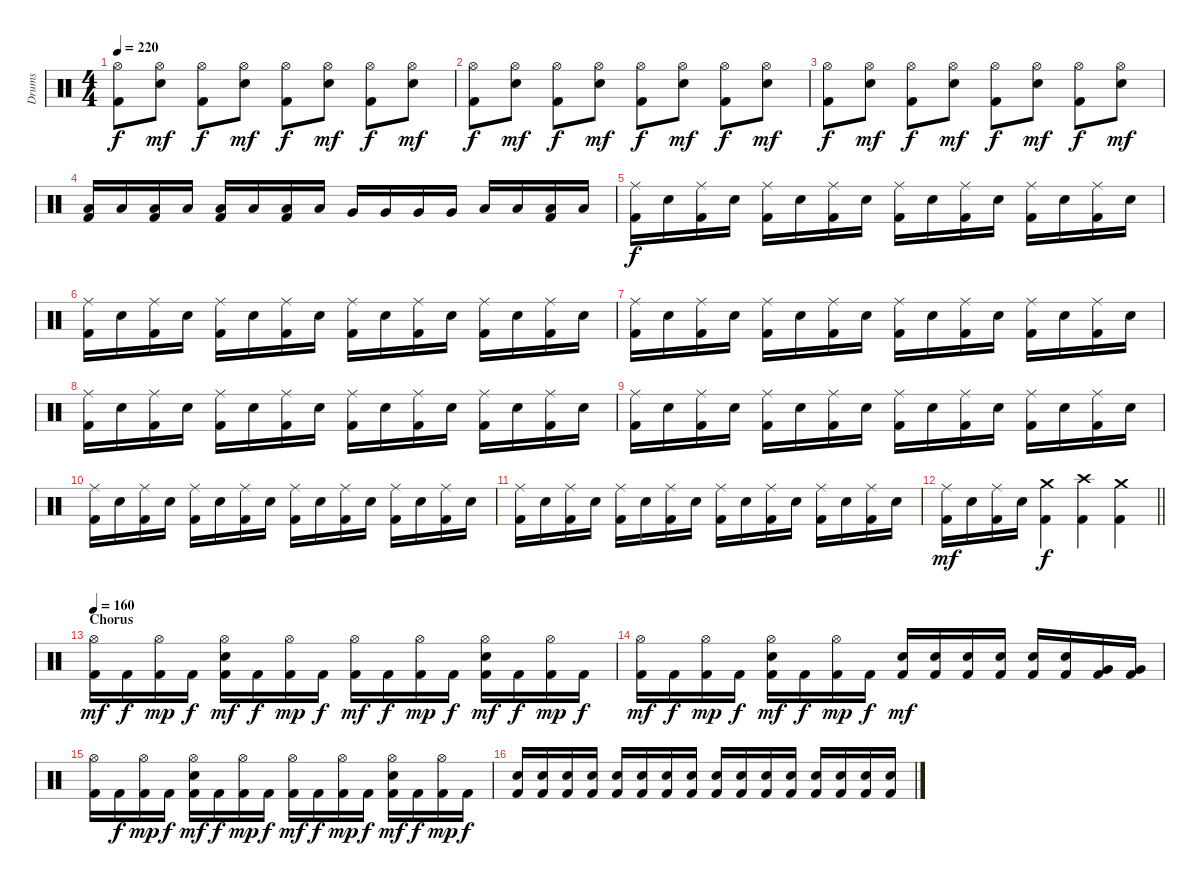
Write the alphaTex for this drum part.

\track ("Drums" "Drums") {instrument percussion}
\staff {score}
\articulation defaults
\ts (4 4)
\tempo 220
\clef neutral
\ks c
("Hi-Hat (open)" "Kick (hit) 2").8{dy f} ("Hi-Hat (open)" "Snare (hit) 2").8{dy mf} ("Hi-Hat (open)" "Kick (hit) 2").8{dy f} ("Hi-Hat (open)" "Snare (hit) 2").8{dy mf} ("Hi-Hat (open)" "Kick (hit) 2").8{dy f} ("Hi-Hat (open)" "Snare (hit) 2").8{dy mf} ("Hi-Hat (open)" "Kick (hit) 2").8{dy f} ("Hi-Hat (open)" "Snare (hit) 2").8{dy mf} |
("Hi-Hat (open)" "Kick (hit) 2").8{dy f} ("Hi-Hat (open)" "Snare (hit) 2").8{dy mf} ("Hi-Hat (open)" "Kick (hit) 2").8{dy f} ("Hi-Hat (open)" "Snare (hit) 2").8{dy mf} ("Hi-Hat (open)" "Kick (hit) 2").8{dy f} ("Hi-Hat (open)" "Snare (hit) 2").8{dy mf} ("Hi-Hat (open)" "Kick (hit) 2").8{dy f} ("Hi-Hat (open)" "Snare (hit) 2").8{dy mf} |
("Hi-Hat (open)" "Kick (hit) 2").8{dy f} ("Hi-Hat (open)" "Snare (hit) 2").8{dy mf} ("Hi-Hat (open)" "Kick (hit) 2").8{dy f} ("Hi-Hat (open)" "Snare (hit) 2").8{dy mf} ("Hi-Hat (open)" "Kick (hit) 2").8{dy f} ("Hi-Hat (open)" "Snare (hit) 2").8{dy mf} ("Hi-Hat (open)" "Kick (hit) 2").8{dy f} ("Hi-Hat (open)" "Snare (hit) 2").8{dy mf} |
("Low Tom (hit)" "Kick (hit) 2").16 "Low Tom (hit)".16 ("Low Tom (hit)" "Kick (hit) 2").16 "Low Tom (hit)".16 ("Low Tom (hit)" "Kick (hit) 2").16 "Low Tom (hit)".16 ("Low Tom (hit)" "Kick (hit) 2").16 "Low Tom (hit)".16 "Very Low Tom (hit)".16 "Very Low Tom (hit)".16 "Very Low Tom (hit)".16 "Very Low Tom (hit)".16 "Low Floor Tom (hit)".16 "Low Floor Tom (hit)".16 ("Low Floor Tom (hit)" "Kick (hit) 2").16 "Low Floor Tom (hit)".16 |
("Ride (middle)" "Kick (hit) 2").16{dy f} "Snare (hit) 2".16 ("Ride (middle)" "Kick (hit) 2").16 "Snare (hit) 2".16 ("Ride (middle)" "Kick (hit) 2").16 "Snare (hit) 2".16 ("Ride (middle)" "Kick (hit) 2").16 "Snare (hit) 2".16 ("Ride (middle)" "Kick (hit) 2").16 "Snare (hit) 2".16 ("Ride (middle)" "Kick (hit) 2").16 "Snare (hit) 2".16 ("Ride (middle)" "Kick (hit) 2").16 "Snare (hit) 2".16 ("Ride (middle)" "Kick (hit) 2").16 "Snare (hit) 2".16 |
("Ride (middle)" "Kick (hit) 2").16 "Snare (hit) 2".16 ("Ride (middle)" "Kick (hit) 2").16 "Snare (hit) 2".16 ("Ride (middle)" "Kick (hit) 2").16 "Snare (hit) 2".16 ("Ride (middle)" "Kick (hit) 2").16 "Snare (hit) 2".16 ("Ride (middle)" "Kick (hit) 2").16 "Snare (hit) 2".16 ("Ride (middle)" "Kick (hit) 2").16 "Snare (hit) 2".16 ("Ride (middle)" "Kick (hit) 2").16 "Snare (hit) 2".16 ("Ride (middle)" "Kick (hit) 2").16 "Snare (hit) 2".16 |
("Ride (middle)" "Kick (hit) 2").16 "Snare (hit) 2".16 ("Ride (middle)" "Kick (hit) 2").16 "Snare (hit) 2".16 ("Ride (middle)" "Kick (hit) 2").16 "Snare (hit) 2".16 ("Ride (middle)" "Kick (hit) 2").16 "Snare (hit) 2".16 ("Ride (middle)" "Kick (hit) 2").16 "Snare (hit) 2".16 ("Ride (middle)" "Kick (hit) 2").16 "Snare (hit) 2".16 ("Ride (middle)" "Kick (hit) 2").16 "Snare (hit) 2".16 ("Ride (middle)" "Kick (hit) 2").16 "Snare (hit) 2".16 |
("Ride (middle)" "Kick (hit) 2").16 "Snare (hit) 2".16 ("Ride (middle)" "Kick (hit) 2").16 "Snare (hit) 2".16 ("Ride (middle)" "Kick (hit) 2").16 "Snare (hit) 2".16 ("Ride (middle)" "Kick (hit) 2").16 "Snare (hit) 2".16 ("Ride (middle)" "Kick (hit) 2").16 "Snare (hit) 2".16 ("Ride (middle)" "Kick (hit) 2").16 "Snare (hit) 2".16 ("Ride (middle)" "Kick (hit) 2").16 "Snare (hit) 2".16 ("Ride (middle)" "Kick (hit) 2").16 "Snare (hit) 2".16 |
("Ride (middle)" "Kick (hit) 2").16 "Snare (hit) 2".16 ("Ride (middle)" "Kick (hit) 2").16 "Snare (hit) 2".16 ("Ride (middle)" "Kick (hit) 2").16 "Snare (hit) 2".16 ("Ride (middle)" "Kick (hit) 2").16 "Snare (hit) 2".16 ("Ride (middle)" "Kick (hit) 2").16 "Snare (hit) 2".16 ("Ride (middle)" "Kick (hit) 2").16 "Snare (hit) 2".16 ("Ride (middle)" "Kick (hit) 2").16 "Snare (hit) 2".16 ("Ride (middle)" "Kick (hit) 2").16 "Snare (hit) 2".16 |
("Ride (middle)" "Kick (hit) 2").16 "Snare (hit) 2".16 ("Ride (middle)" "Kick (hit) 2").16 "Snare (hit) 2".16 ("Ride (middle)" "Kick (hit) 2").16 "Snare (hit) 2".16 ("Ride (middle)" "Kick (hit) 2").16 "Snare (hit) 2".16 ("Ride (middle)" "Kick (hit) 2").16 "Snare (hit) 2".16 ("Ride (middle)" "Kick (hit) 2").16 "Snare (hit) 2".16 ("Ride (middle)" "Kick (hit) 2").16 "Snare (hit) 2".16 ("Ride (middle)" "Kick (hit) 2").16 "Snare (hit) 2".16 |
("Ride (middle)" "Kick (hit) 2").16 "Snare (hit) 2".16 ("Ride (middle)" "Kick (hit) 2").16 "Snare (hit) 2".16 ("Ride (middle)" "Kick (hit) 2").16 "Snare (hit) 2".16 ("Ride (middle)" "Kick (hit) 2").16 "Snare (hit) 2".16 ("Ride (middle)" "Kick (hit) 2").16 "Snare (hit) 2".16 ("Ride (middle)" "Kick (hit) 2").16 "Snare (hit) 2".16 ("Ride (middle)" "Kick (hit) 2").16 "Snare (hit) 2".16 ("Ride (middle)" "Kick (hit) 2").16 "Snare (hit) 2".16 |
\barLineRight lightlight
("Ride (middle)" "Kick (hit) 2").16{dy mf} "Snare (hit) 2".16 ("Ride (middle)" "Kick (hit) 2").16 "Snare (hit) 2".16 ("Crash medium (hit)" "Kick (hit) 2").4{dy f} ("Crash high (hit)" "Kick (hit) 2").4 ("Crash medium (hit)" "Kick (hit) 2").4 |
\section ("" "Chorus")
\tempo 160
("Hi-Hat (open)" "Kick (hit) 2").16{dy mf} "Kick (hit) 2".16{dy f} ("Hi-Hat (open)" "Kick (hit) 2").16{dy mp} "Kick (hit) 2".16{dy f} ("Hi-Hat (open)" "Snare (hit) 2" "Kick (hit) 2").16{dy mf} "Kick (hit) 2".16{dy f} ("Hi-Hat (open)" "Kick (hit) 2").16{dy mp} "Kick (hit) 2".16{dy f} ("Hi-Hat (open)" "Kick (hit) 2").16{dy mf} "Kick (hit) 2".16{dy f} ("Hi-Hat (open)" "Kick (hit) 2").16{dy mp} "Kick (hit) 2".16{dy f} ("Hi-Hat (open)" "Snare (hit) 2" "Kick (hit) 2").16{dy mf} "Kick (hit) 2".16{dy f} ("Hi-Hat (open)" "Kick (hit) 2").16{dy mp} "Kick (hit) 2".16{dy f} |
("Hi-Hat (open)" "Kick (hit) 2").16{dy mf} "Kick (hit) 2".16{dy f} ("Hi-Hat (open)" "Kick (hit) 2").16{dy mp} "Kick (hit) 2".16{dy f} ("Hi-Hat (open)" "Snare (hit) 2" "Kick (hit) 2").16{dy mf} "Kick (hit) 2".16{dy f} ("Hi-Hat (open)" "Kick (hit) 2").16{dy mp} "Kick (hit) 2".16{dy f} ("Snare (hit) 2" "Kick (hit) 2").16{dy mf} ("Snare (hit) 2" "Kick (hit) 2").16 ("Snare (hit) 2" "Kick (hit) 2").16 ("Snare (hit) 2" "Kick (hit) 2").16 ("Snare (hit) 2" "Kick (hit) 2").16 ("Snare (hit) 2" "Kick (hit) 2").16 ("Very Low Tom (hit)" "Kick (hit) 2").16 ("Very Low Tom (hit)" "Kick (hit) 2").16 |
("Hi-Hat (open)" "Kick (hit) 2").16 "Kick (hit) 2".16{dy f} ("Hi-Hat (open)" "Kick (hit) 2").16{dy mp} "Kick (hit) 2".16{dy f} ("Hi-Hat (open)" "Snare (hit) 2" "Kick (hit) 2").16{dy mf} "Kick (hit) 2".16{dy f} ("Hi-Hat (open)" "Kick (hit) 2").16{dy mp} "Kick (hit) 2".16{dy f} ("Hi-Hat (open)" "Kick (hit) 2").16{dy mf} "Kick (hit) 2".16{dy f} ("Hi-Hat (open)" "Kick (hit) 2").16{dy mp} "Kick (hit) 2".16{dy f} ("Hi-Hat (open)" "Snare (hit) 2" "Kick (hit) 2").16{dy mf} "Kick (hit) 2".16{dy f} ("Hi-Hat (open)" "Kick (hit) 2").16{dy mp} "Kick (hit) 2".16{dy f} |
("Snare (hit) 2" "Kick (hit) 2").16 ("Snare (hit) 2" "Kick (hit) 2").16 ("Snare (hit) 2" "Kick (hit) 2").16 ("Snare (hit) 2" "Kick (hit) 2").16 ("Snare (hit) 2" "Kick (hit) 2").16 ("Snare (hit) 2" "Kick (hit) 2").16 ("Snare (hit) 2" "Kick (hit) 2").16 ("Snare (hit) 2" "Kick (hit) 2").16 ("Snare (hit) 2" "Kick (hit) 2").16 ("Snare (hit) 2" "Kick (hit) 2").16 ("Snare (hit) 2" "Kick (hit) 2").16 ("Snare (hit) 2" "Kick (hit) 2").16 ("Snare (hit) 2" "Kick (hit) 2").16 ("Snare (hit) 2" "Kick (hit) 2").16 ("Snare (hit) 2" "Kick (hit) 2").16 ("Snare (hit) 2" "Kick (hit) 2").16
